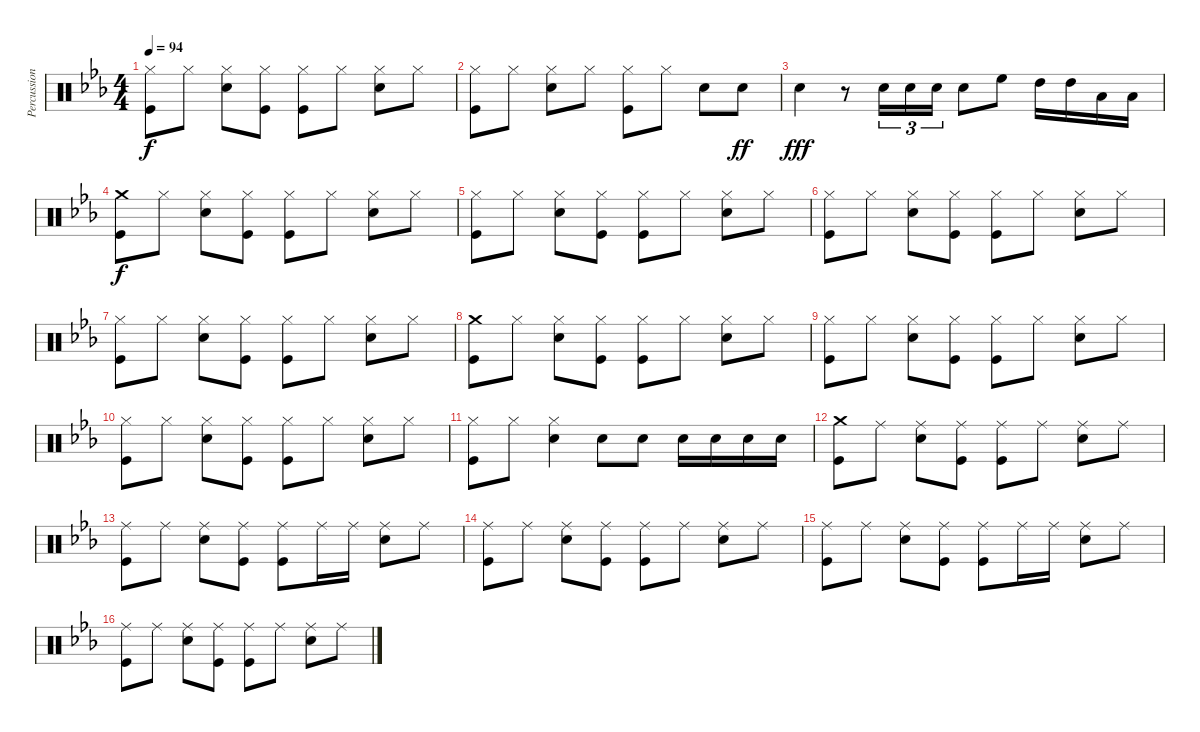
\track ("Percussion" "Percussion") {instrument percussion}
\staff {score}
\articulation defaults
\ts (4 4)
\tempo 94
\clef neutral
\ks eb
("Hi-Hat (closed)" "Kick (hit)").8{dy f} "Hi-Hat (closed)".8 ("Hi-Hat (closed)" "Snare (hit) 2").8 ("Hi-Hat (closed)" "Kick (hit)").8 ("Hi-Hat (closed)" "Kick (hit)").8 "Hi-Hat (closed)".8 ("Hi-Hat (closed)" "Snare (hit) 2").8 "Hi-Hat (closed)".8 |
("Hi-Hat (closed)" "Kick (hit)").8 "Hi-Hat (closed)".8 ("Hi-Hat (closed)" "Snare (hit) 2").8 "Hi-Hat (closed)".8 ("Hi-Hat (closed)" "Kick (hit)").8 "Hi-Hat (closed)".8 "Snare (hit) 2".8 "Snare (hit) 2".8{dy ff} |
"Snare (hit) 2".4{dy fff} r.8 "Snare (hit) 2".16{tu (3 2)} "Snare (hit) 2".16{tu (3 2)} "Snare (hit) 2".16{tu (3 2)} "Snare (hit) 2".8 "High Floor Tom (hit)".8 "High Tom (hit)".16 "High Tom (hit)".16 "Low Tom (hit)".16 "Low Tom (hit)".16 |
("Crash medium (hit)" "Kick (hit)").8{dy f} "Hi-Hat (closed)".8 ("Hi-Hat (closed)" "Snare (hit) 2").8 ("Hi-Hat (closed)" "Kick (hit)").8 ("Hi-Hat (closed)" "Kick (hit)").8 "Hi-Hat (closed)".8 ("Hi-Hat (closed)" "Snare (hit) 2").8 "Hi-Hat (closed)".8 |
("Hi-Hat (closed)" "Kick (hit)").8 "Hi-Hat (closed)".8 ("Hi-Hat (closed)" "Snare (hit) 2").8 ("Hi-Hat (closed)" "Kick (hit)").8 ("Hi-Hat (closed)" "Kick (hit)").8 "Hi-Hat (closed)".8 ("Hi-Hat (closed)" "Snare (hit) 2").8 "Hi-Hat (closed)".8 |
("Hi-Hat (closed)" "Kick (hit)").8 "Hi-Hat (closed)".8 ("Hi-Hat (closed)" "Snare (hit) 2").8 ("Hi-Hat (closed)" "Kick (hit)").8 ("Hi-Hat (closed)" "Kick (hit)").8 "Hi-Hat (closed)".8 ("Hi-Hat (closed)" "Snare (hit) 2").8 "Hi-Hat (closed)".8 |
("Hi-Hat (closed)" "Kick (hit)").8 "Hi-Hat (closed)".8 ("Hi-Hat (closed)" "Snare (hit) 2").8 ("Hi-Hat (closed)" "Kick (hit)").8 ("Hi-Hat (closed)" "Kick (hit)").8 "Hi-Hat (closed)".8 ("Hi-Hat (closed)" "Snare (hit) 2").8 "Hi-Hat (closed)".8 |
("Crash medium (hit)" "Kick (hit)").8 "Hi-Hat (closed)".8 ("Hi-Hat (closed)" "Snare (hit) 2").8 ("Hi-Hat (closed)" "Kick (hit)").8 ("Hi-Hat (closed)" "Kick (hit)").8 "Hi-Hat (closed)".8 ("Hi-Hat (closed)" "Snare (hit) 2").8 "Hi-Hat (closed)".8 |
("Hi-Hat (closed)" "Kick (hit)").8 "Hi-Hat (closed)".8 ("Hi-Hat (closed)" "Snare (hit) 2").8 ("Hi-Hat (closed)" "Kick (hit)").8 ("Hi-Hat (closed)" "Kick (hit)").8 "Hi-Hat (closed)".8 ("Hi-Hat (closed)" "Snare (hit) 2").8 "Hi-Hat (closed)".8 |
("Hi-Hat (closed)" "Kick (hit)").8 "Hi-Hat (closed)".8 ("Hi-Hat (closed)" "Snare (hit) 2").8 ("Hi-Hat (closed)" "Kick (hit)").8 ("Hi-Hat (closed)" "Kick (hit)").8 "Hi-Hat (closed)".8 ("Hi-Hat (closed)" "Snare (hit) 2").8 "Hi-Hat (closed)".8 |
("Hi-Hat (closed)" "Kick (hit)").8 "Hi-Hat (closed)".8 ("Hi-Hat (closed)" "Snare (hit) 2").4 "Snare (hit) 2".8 "Snare (hit) 2".8 "Snare (hit) 2".16 "Snare (hit) 2".16 "Snare (hit) 2".16 "Snare (hit) 2".16 |
("Crash medium (hit)" "Kick (hit)").8 "Ride (middle)".8 ("Ride (middle)" "Snare (hit) 2").8 ("Ride (middle)" "Kick (hit)").8 ("Ride (middle)" "Kick (hit)").8 "Ride (middle)".8 ("Ride (middle)" "Snare (hit) 2").8 "Ride (middle)".8 |
("Ride (middle)" "Kick (hit)").8 "Ride (middle)".8 ("Ride (middle)" "Snare (hit) 2").8 ("Ride (middle)" "Kick (hit)").8 ("Ride (middle)" "Kick (hit)").8 "Ride (middle)".16 "Ride (middle)".16 ("Ride (middle)" "Snare (hit) 2").8 "Ride (middle)".8 |
("Ride (middle)" "Kick (hit)").8 "Ride (middle)".8 ("Ride (middle)" "Snare (hit) 2").8 ("Ride (middle)" "Kick (hit)").8 ("Ride (middle)" "Kick (hit)").8 "Ride (middle)".8 ("Ride (middle)" "Snare (hit) 2").8 "Ride (middle)".8 |
("Ride (middle)" "Kick (hit)").8 "Ride (middle)".8 ("Ride (middle)" "Snare (hit) 2").8 ("Ride (middle)" "Kick (hit)").8 ("Ride (middle)" "Kick (hit)").8 "Ride (middle)".16 "Ride (middle)".16 ("Ride (middle)" "Snare (hit) 2").8 "Ride (middle)".8 |
("Ride (middle)" "Kick (hit)").8 "Ride (middle)".8 ("Ride (middle)" "Snare (hit) 2").8 ("Ride (middle)" "Kick (hit)").8 ("Ride (middle)" "Kick (hit)").8 "Ride (middle)".8 ("Ride (middle)" "Snare (hit) 2").8 "Ride (middle)".8
